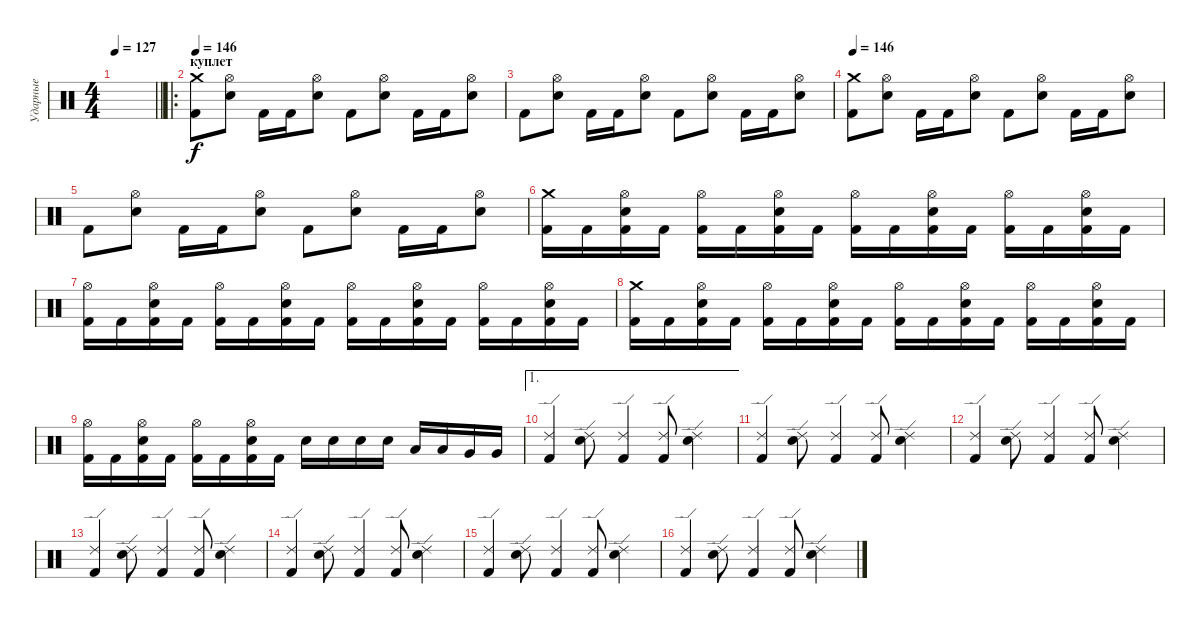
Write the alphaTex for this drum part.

\track ("Ударные" "Ударные") {instrument percussion}
\staff {score}
\articulation defaults
\ts (4 4)
\tempo 127
\clef neutral
\barLineRight lightlight
\ks c
|
\ro
\section ("" "куплет")
\tempo 146
("Crash medium (hit)" "Kick (hit) 2").8 ("Hi-Hat (open)" "Snare (hit) 2").8 "Kick (hit) 2".16 "Kick (hit) 2".16 ("Hi-Hat (open)" "Snare (hit) 2").8 "Kick (hit) 2".8 ("Hi-Hat (open)" "Snare (hit) 2").8 "Kick (hit) 2".16 "Kick (hit) 2".16 ("Hi-Hat (open)" "Snare (hit) 2").8 |
"Kick (hit) 2".8 ("Hi-Hat (open)" "Snare (hit) 2").8 "Kick (hit) 2".16 "Kick (hit) 2".16 ("Hi-Hat (open)" "Snare (hit) 2").8 "Kick (hit) 2".8 ("Hi-Hat (open)" "Snare (hit) 2").8 "Kick (hit) 2".16 "Kick (hit) 2".16 ("Hi-Hat (open)" "Snare (hit) 2").8 |
\tempo 146
("Crash medium (hit)" "Kick (hit) 2").8 ("Hi-Hat (open)" "Snare (hit) 2").8 "Kick (hit) 2".16 "Kick (hit) 2".16 ("Hi-Hat (open)" "Snare (hit) 2").8 "Kick (hit) 2".8 ("Hi-Hat (open)" "Snare (hit) 2").8 "Kick (hit) 2".16 "Kick (hit) 2".16 ("Hi-Hat (open)" "Snare (hit) 2").8 |
"Kick (hit) 2".8 ("Hi-Hat (open)" "Snare (hit) 2").8 "Kick (hit) 2".16 "Kick (hit) 2".16 ("Hi-Hat (open)" "Snare (hit) 2").8 "Kick (hit) 2".8 ("Hi-Hat (open)" "Snare (hit) 2").8 "Kick (hit) 2".16 "Kick (hit) 2".16 ("Hi-Hat (open)" "Snare (hit) 2").8 |
("Crash medium (hit)" "Kick (hit) 2").16 "Kick (hit) 2".16 ("Hi-Hat (open)" "Snare (hit) 2" "Kick (hit) 2").16 "Kick (hit) 2".16 ("Hi-Hat (open)" "Kick (hit) 2").16 "Kick (hit) 2".16 ("Hi-Hat (open)" "Snare (hit) 2" "Kick (hit) 2").16 "Kick (hit) 2".16 ("Hi-Hat (open)" "Kick (hit) 2").16 "Kick (hit) 2".16 ("Hi-Hat (open)" "Snare (hit) 2" "Kick (hit) 2").16 "Kick (hit) 2".16 ("Hi-Hat (open)" "Kick (hit) 2").16 "Kick (hit) 2".16 ("Hi-Hat (open)" "Snare (hit) 2" "Kick (hit) 2").16 "Kick (hit) 2".16 |
("Hi-Hat (open)" "Kick (hit) 2").16 "Kick (hit) 2".16 ("Hi-Hat (open)" "Snare (hit) 2" "Kick (hit) 2").16 "Kick (hit) 2".16 ("Hi-Hat (open)" "Kick (hit) 2").16 "Kick (hit) 2".16 ("Hi-Hat (open)" "Snare (hit) 2" "Kick (hit) 2").16 "Kick (hit) 2".16 ("Hi-Hat (open)" "Kick (hit) 2").16 "Kick (hit) 2".16 ("Hi-Hat (open)" "Snare (hit) 2" "Kick (hit) 2").16 "Kick (hit) 2".16 ("Hi-Hat (open)" "Kick (hit) 2").16 "Kick (hit) 2".16 ("Hi-Hat (open)" "Snare (hit) 2" "Kick (hit) 2").16 "Kick (hit) 2".16 |
("Crash medium (hit)" "Kick (hit) 2").16 "Kick (hit) 2".16 ("Hi-Hat (open)" "Snare (hit) 2" "Kick (hit) 2").16 "Kick (hit) 2".16 ("Hi-Hat (open)" "Kick (hit) 2").16 "Kick (hit) 2".16 ("Hi-Hat (open)" "Snare (hit) 2" "Kick (hit) 2").16 "Kick (hit) 2".16 ("Hi-Hat (open)" "Kick (hit) 2").16 "Kick (hit) 2".16 ("Hi-Hat (open)" "Snare (hit) 2" "Kick (hit) 2").16 "Kick (hit) 2".16 ("Hi-Hat (open)" "Kick (hit) 2").16 "Kick (hit) 2".16 ("Hi-Hat (open)" "Snare (hit) 2" "Kick (hit) 2").16 "Kick (hit) 2".16 |
("Hi-Hat (open)" "Kick (hit) 2").16 "Kick (hit) 2".16 ("Hi-Hat (open)" "Snare (hit) 2" "Kick (hit) 2").16 "Kick (hit) 2".16 ("Hi-Hat (open)" "Kick (hit) 2").16 "Kick (hit) 2".16 ("Hi-Hat (open)" "Snare (hit) 2" "Kick (hit) 2").16 "Kick (hit) 2".16 "Snare (hit) 2".16 "Snare (hit) 2".16 "Snare (hit) 2".16 "Snare (hit) 2".16 "Low Tom (hit)".16 "Low Tom (hit)".16 "Very Low Tom (hit)".16 "Very Low Tom (hit)".16 |
\ae 1
("Ride (edge) 2" "Kick (hit) 2").4 ("Ride (edge) 2" "Snare (hit) 2").8 ("Ride (edge) 2" "Kick (hit) 2").4 ("Ride (edge) 2" "Kick (hit) 2").8 ("Ride (edge) 2" "Snare (hit) 2").4 |
("Ride (edge) 2" "Kick (hit) 2").4 ("Ride (edge) 2" "Snare (hit) 2").8 ("Ride (edge) 2" "Kick (hit) 2").4 ("Ride (edge) 2" "Kick (hit) 2").8 ("Ride (edge) 2" "Snare (hit) 2").4 |
("Ride (edge) 2" "Kick (hit) 2").4 ("Ride (edge) 2" "Snare (hit) 2").8 ("Ride (edge) 2" "Kick (hit) 2").4 ("Ride (edge) 2" "Kick (hit) 2").8 ("Ride (edge) 2" "Snare (hit) 2").4 |
("Ride (edge) 2" "Kick (hit) 2").4 ("Ride (edge) 2" "Snare (hit) 2").8 ("Ride (edge) 2" "Kick (hit) 2").4 ("Ride (edge) 2" "Kick (hit) 2").8 ("Ride (edge) 2" "Snare (hit) 2").4 |
("Ride (edge) 2" "Kick (hit) 2").4 ("Ride (edge) 2" "Snare (hit) 2").8 ("Ride (edge) 2" "Kick (hit) 2").4 ("Ride (edge) 2" "Kick (hit) 2").8 ("Ride (edge) 2" "Snare (hit) 2").4 |
("Ride (edge) 2" "Kick (hit) 2").4 ("Ride (edge) 2" "Snare (hit) 2").8 ("Ride (edge) 2" "Kick (hit) 2").4 ("Ride (edge) 2" "Kick (hit) 2").8 ("Ride (edge) 2" "Snare (hit) 2").4 |
("Ride (edge) 2" "Kick (hit) 2").4 ("Ride (edge) 2" "Snare (hit) 2").8 ("Ride (edge) 2" "Kick (hit) 2").4 ("Ride (edge) 2" "Kick (hit) 2").8 ("Ride (edge) 2" "Snare (hit) 2").4
